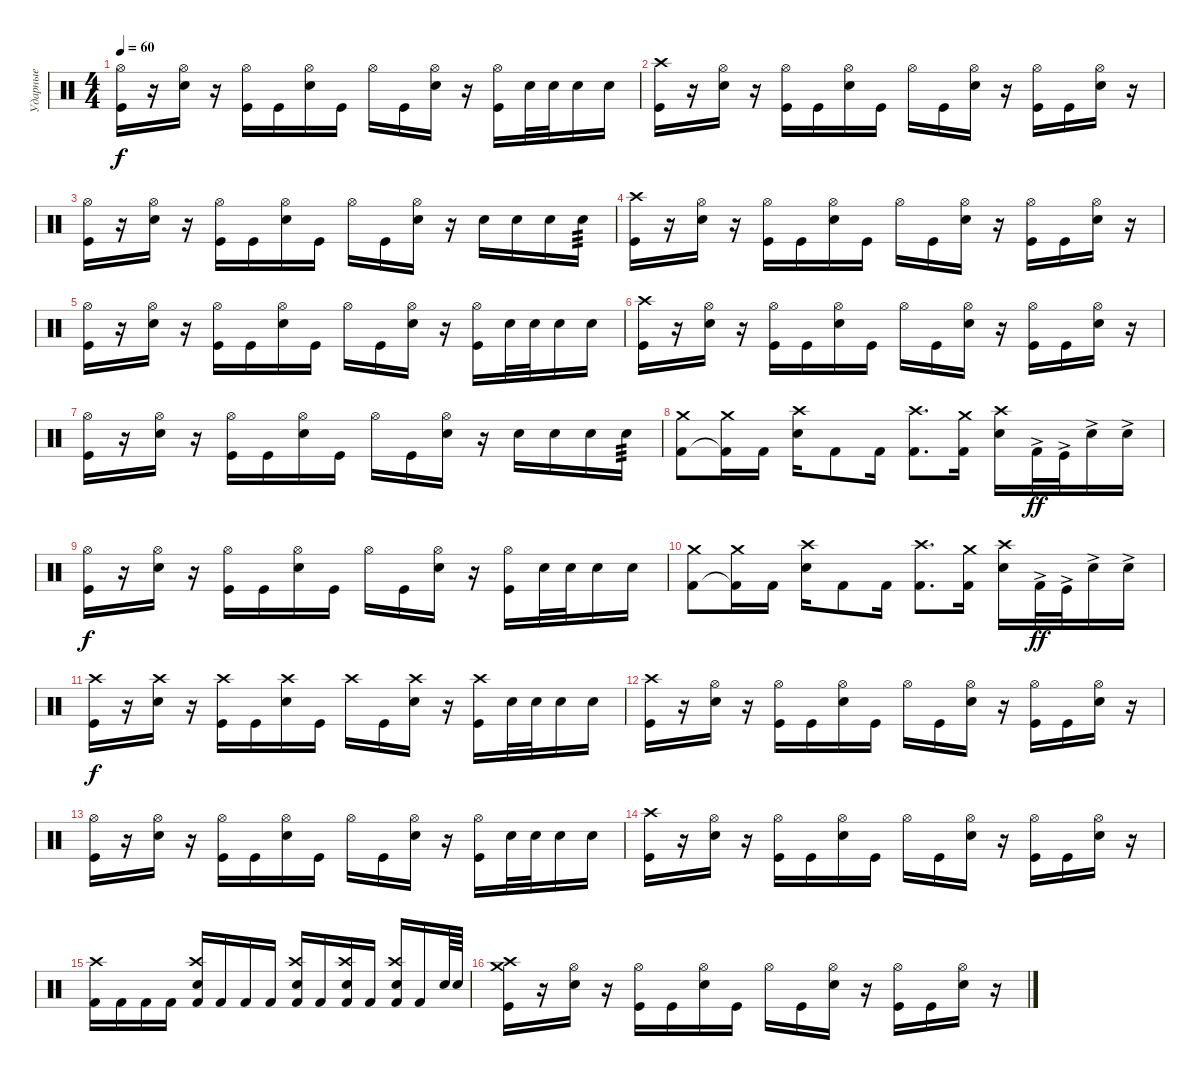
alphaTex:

\track ("Ударные" "Ударные") {instrument percussion}
\staff {score}
\articulation defaults
\ts (4 4)
\tempo 60
\clef neutral
\ks c
("Hi-Hat (open)" "Kick (hit)").16{dy f} r.16 ("Hi-Hat (open)" "Electric Snare (hit)").16 r.16 ("Hi-Hat (open)" "Kick (hit)").16 "Kick (hit)".16 ("Hi-Hat (open)" "Electric Snare (hit)").16 "Kick (hit)".16 "Hi-Hat (open)".16 "Kick (hit)".16 ("Hi-Hat (open)" "Electric Snare (hit)").16 r.16 ("Hi-Hat (open)" "Kick (hit)").16 "Electric Snare (hit)".32 "Electric Snare (hit)".32 "Electric Snare (hit)".16 "Electric Snare (hit)".16 |
("Crash high (hit)" "Kick (hit)").16 r.16 ("Hi-Hat (open)" "Electric Snare (hit)").16 r.16 ("Hi-Hat (open)" "Kick (hit)").16 "Kick (hit)".16 ("Hi-Hat (open)" "Electric Snare (hit)").16 "Kick (hit)".16 "Hi-Hat (open)".16 "Kick (hit)".16 ("Hi-Hat (open)" "Electric Snare (hit)").16 r.16 ("Hi-Hat (open)" "Kick (hit)").16 "Kick (hit)".16 ("Hi-Hat (open)" "Electric Snare (hit)").16 r.16 |
("Hi-Hat (open)" "Kick (hit)").16 r.16 ("Hi-Hat (open)" "Electric Snare (hit)").16 r.16 ("Hi-Hat (open)" "Kick (hit)").16 "Kick (hit)".16 ("Hi-Hat (open)" "Electric Snare (hit)").16 "Kick (hit)".16 "Hi-Hat (open)".16 "Kick (hit)".16 ("Hi-Hat (open)" "Electric Snare (hit)").16 r.16 "Electric Snare (hit)".16 "Electric Snare (hit)".16 "Electric Snare (hit)".16 "Electric Snare (hit)".16{tp 3} |
("Crash high (hit)" "Kick (hit)").16 r.16 ("Hi-Hat (open)" "Electric Snare (hit)").16 r.16 ("Hi-Hat (open)" "Kick (hit)").16 "Kick (hit)".16 ("Hi-Hat (open)" "Electric Snare (hit)").16 "Kick (hit)".16 "Hi-Hat (open)".16 "Kick (hit)".16 ("Hi-Hat (open)" "Electric Snare (hit)").16 r.16 ("Hi-Hat (open)" "Kick (hit)").16 "Kick (hit)".16 ("Hi-Hat (open)" "Electric Snare (hit)").16 r.16 |
("Hi-Hat (open)" "Kick (hit)").16 r.16 ("Hi-Hat (open)" "Electric Snare (hit)").16 r.16 ("Hi-Hat (open)" "Kick (hit)").16 "Kick (hit)".16 ("Hi-Hat (open)" "Electric Snare (hit)").16 "Kick (hit)".16 "Hi-Hat (open)".16 "Kick (hit)".16 ("Hi-Hat (open)" "Electric Snare (hit)").16 r.16 ("Hi-Hat (open)" "Kick (hit)").16 "Electric Snare (hit)".32 "Electric Snare (hit)".32 "Electric Snare (hit)".16 "Electric Snare (hit)".16 |
("Crash high (hit)" "Kick (hit)").16 r.16 ("Hi-Hat (open)" "Electric Snare (hit)").16 r.16 ("Hi-Hat (open)" "Kick (hit)").16 "Kick (hit)".16 ("Hi-Hat (open)" "Electric Snare (hit)").16 "Kick (hit)".16 "Hi-Hat (open)".16 "Kick (hit)".16 ("Hi-Hat (open)" "Electric Snare (hit)").16 r.16 ("Hi-Hat (open)" "Kick (hit)").16 "Kick (hit)".16 ("Hi-Hat (open)" "Electric Snare (hit)").16 r.16 |
("Hi-Hat (open)" "Kick (hit)").16 r.16 ("Hi-Hat (open)" "Electric Snare (hit)").16 r.16 ("Hi-Hat (open)" "Kick (hit)").16 "Kick (hit)".16 ("Hi-Hat (open)" "Electric Snare (hit)").16 "Kick (hit)".16 "Hi-Hat (open)".16 "Kick (hit)".16 ("Hi-Hat (open)" "Electric Snare (hit)").16 r.16 "Electric Snare (hit)".16 "Electric Snare (hit)".16 "Electric Snare (hit)".16 "Electric Snare (hit)".16{tp 3} |
("Crash medium (hit)" "Kick (hit) 2").8 ("Crash medium (hit)" "Kick (hit) 2"{t}).16 "Kick (hit) 2".16 ("Crash high (hit)" "Electric Snare (hit)").16 "Kick (hit) 2".8 "Kick (hit) 2".16 ("Crash high (hit)" "Kick (hit) 2").8{d} ("Crash medium (hit)" "Kick (hit) 2").16 ("Crash high (hit)" "Electric Snare (hit)").16 "Kick (hit) 2"{ac}.32{dy ff} "Kick (hit)"{ac}.32 "Electric Snare (hit)"{ac}.16 "Electric Snare (hit)"{ac}.16 |
("Hi-Hat (open)" "Kick (hit)").16{dy f} r.16 ("Hi-Hat (open)" "Electric Snare (hit)").16 r.16 ("Hi-Hat (open)" "Kick (hit)").16 "Kick (hit)".16 ("Hi-Hat (open)" "Electric Snare (hit)").16 "Kick (hit)".16 "Hi-Hat (open)".16 "Kick (hit)".16 ("Hi-Hat (open)" "Electric Snare (hit)").16 r.16 ("Hi-Hat (open)" "Kick (hit)").16 "Electric Snare (hit)".32 "Electric Snare (hit)".32 "Electric Snare (hit)".16 "Electric Snare (hit)".16 |
("Crash medium (hit)" "Kick (hit) 2").8 ("Crash medium (hit)" "Kick (hit) 2"{t}).16 "Kick (hit) 2".16 ("Crash high (hit)" "Electric Snare (hit)").16 "Kick (hit) 2".8 "Kick (hit) 2".16 ("Crash high (hit)" "Kick (hit) 2").8{d} ("Crash medium (hit)" "Kick (hit) 2").16 ("Crash high (hit)" "Electric Snare (hit)").16 "Kick (hit) 2"{ac}.32{dy ff} "Kick (hit)"{ac}.32 "Electric Snare (hit)"{ac}.16 "Electric Snare (hit)"{ac}.16 |
("Crash high (hit)" "Kick (hit)").16{dy f} r.16 ("Crash high (hit)" "Electric Snare (hit)").16 r.16 ("Crash high (hit)" "Kick (hit)").16 "Kick (hit)".16 ("Crash high (hit)" "Electric Snare (hit)").16 "Kick (hit)".16 "Crash high (hit)".16 "Kick (hit)".16 ("Crash high (hit)" "Electric Snare (hit)").16 r.16 ("Crash high (hit)" "Kick (hit)").16 "Electric Snare (hit)".32 "Electric Snare (hit)".32 "Electric Snare (hit)".16 "Electric Snare (hit)".16 |
("Crash high (hit)" "Kick (hit)").16 r.16 ("Hi-Hat (open)" "Electric Snare (hit)").16 r.16 ("Hi-Hat (open)" "Kick (hit)").16 "Kick (hit)".16 ("Hi-Hat (open)" "Electric Snare (hit)").16 "Kick (hit)".16 "Hi-Hat (open)".16 "Kick (hit)".16 ("Hi-Hat (open)" "Electric Snare (hit)").16 r.16 ("Hi-Hat (open)" "Kick (hit)").16 "Kick (hit)".16 ("Hi-Hat (open)" "Electric Snare (hit)").16 r.16 |
("Hi-Hat (open)" "Kick (hit)").16 r.16 ("Hi-Hat (open)" "Electric Snare (hit)").16 r.16 ("Hi-Hat (open)" "Kick (hit)").16 "Kick (hit)".16 ("Hi-Hat (open)" "Electric Snare (hit)").16 "Kick (hit)".16 "Hi-Hat (open)".16 "Kick (hit)".16 ("Hi-Hat (open)" "Electric Snare (hit)").16 r.16 ("Hi-Hat (open)" "Kick (hit)").16 "Electric Snare (hit)".32 "Electric Snare (hit)".32 "Electric Snare (hit)".16 "Electric Snare (hit)".16 |
("Crash high (hit)" "Kick (hit)").16 r.16 ("Hi-Hat (open)" "Electric Snare (hit)").16 r.16 ("Hi-Hat (open)" "Kick (hit)").16 "Kick (hit)".16 ("Hi-Hat (open)" "Electric Snare (hit)").16 "Kick (hit)".16 "Hi-Hat (open)".16 "Kick (hit)".16 ("Hi-Hat (open)" "Electric Snare (hit)").16 r.16 ("Hi-Hat (open)" "Kick (hit)").16 "Kick (hit)".16 ("Hi-Hat (open)" "Electric Snare (hit)").16 r.16 |
("Crash high (hit)" "Kick (hit) 2").16 "Kick (hit) 2".16 "Kick (hit) 2".16 "Kick (hit) 2".16 ("Crash high (hit)" "Electric Snare (hit)" "Kick (hit) 2").16 "Kick (hit) 2".16 "Kick (hit) 2".16 "Kick (hit) 2".16 ("Crash high (hit)" "Electric Snare (hit)" "Kick (hit) 2").16 "Kick (hit) 2".16 ("Crash high (hit)" "Electric Snare (hit)" "Kick (hit) 2").16 "Kick (hit) 2".16 ("Crash high (hit)" "Electric Snare (hit)" "Kick (hit) 2").16 "Kick (hit) 2".16 "Electric Snare (hit)".64 "Electric Snare (hit)".64 |
("Crash high (hit)" "Crash medium (hit)" "Kick (hit)").16 r.16 ("Hi-Hat (open)" "Electric Snare (hit)").16 r.16 ("Hi-Hat (open)" "Kick (hit)").16 "Kick (hit)".16 ("Hi-Hat (open)" "Electric Snare (hit)").16 "Kick (hit)".16 "Hi-Hat (open)".16 "Kick (hit)".16 ("Hi-Hat (open)" "Electric Snare (hit)").16 r.16 ("Hi-Hat (open)" "Kick (hit)").16 "Kick (hit)".16 ("Hi-Hat (open)" "Electric Snare (hit)").16 r.16
